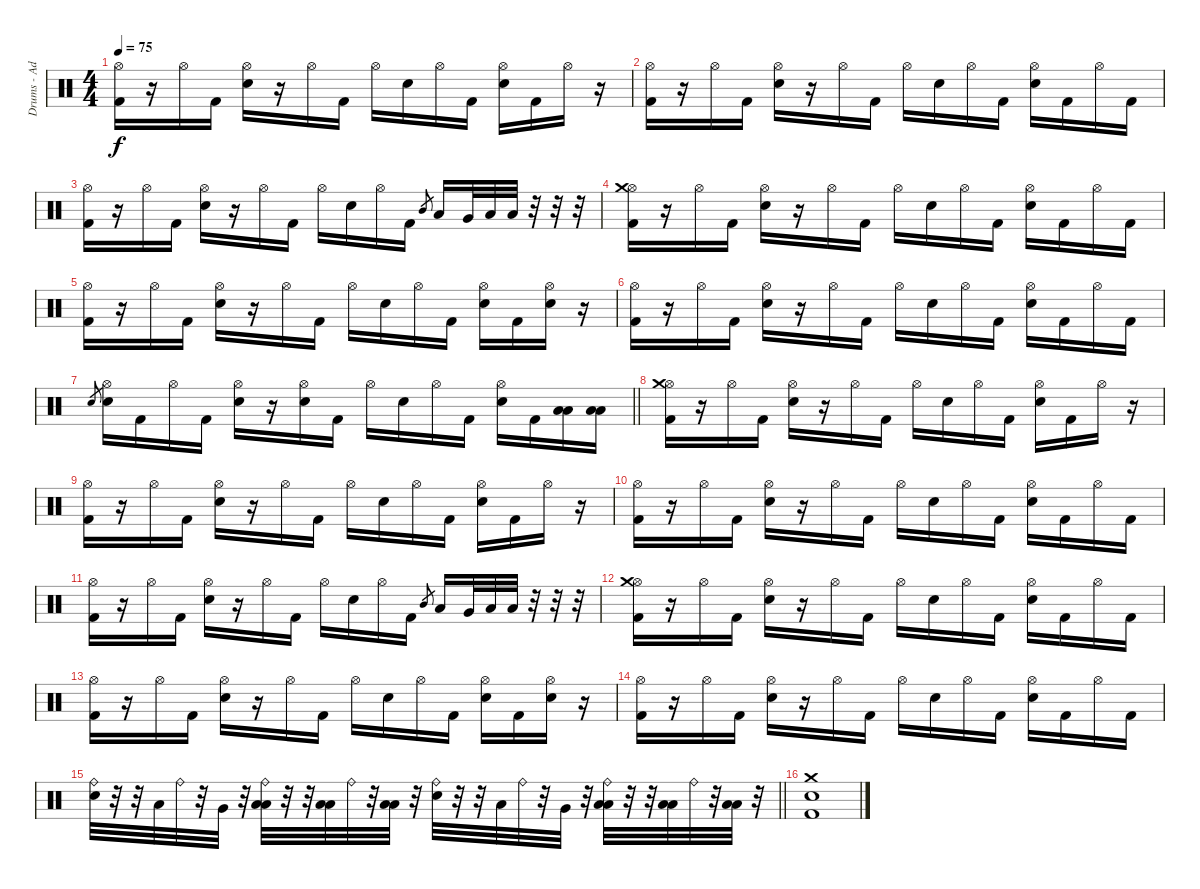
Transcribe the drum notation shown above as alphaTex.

\track ("Drums - Adrian Robinson" "Drums - Ad") {instrument percussion}
\staff {score}
\articulation defaults
\ts (4 4)
\tempo 75
\clef neutral
\ks c
("Hi-Hat (open)" "Kick (hit) 2").16{dy f} r.16 "Hi-Hat (open)".16 "Kick (hit) 2".16 ("Hi-Hat (open)" "Electric Snare (hit)").16 r.16 "Hi-Hat (open)".16 "Kick (hit) 2".16 "Hi-Hat (open)".16 "Electric Snare (hit)".16 "Hi-Hat (open)".16 "Kick (hit) 2".16 ("Hi-Hat (open)" "Electric Snare (hit)").16 "Kick (hit) 2".16 "Hi-Hat (open)".16 r.16 |
("Hi-Hat (open)" "Kick (hit) 2").16 r.16 "Hi-Hat (open)".16 "Kick (hit) 2".16 ("Hi-Hat (open)" "Electric Snare (hit)").16 r.16 "Hi-Hat (open)".16 "Kick (hit) 2".16 "Hi-Hat (open)".16 "Electric Snare (hit)".16 "Hi-Hat (open)".16 "Kick (hit) 2".16 ("Hi-Hat (open)" "Electric Snare (hit)").16 "Kick (hit) 2".16 "Hi-Hat (open)".16 "Kick (hit) 2".16 |
("Hi-Hat (open)" "Kick (hit) 2").16 r.16 "Hi-Hat (open)".16 "Kick (hit) 2".16 ("Hi-Hat (open)" "Electric Snare (hit)").16 r.16 "Hi-Hat (open)".16 "Kick (hit) 2".16 "Hi-Hat (open)".16 "Electric Snare (hit)".16 "Hi-Hat (open)".16 "Kick (hit) 2".16 "Mid Tom (hit)".8{gr} "Low Tom (hit)".16 "Very Low Tom (hit)".32 "Low Floor Tom (hit)".32 "Low Floor Tom (hit)".32 r.32 r.32 r.32 |
("Hi-Hat (open)" "Crash medium (hit)" "Kick (hit) 2").16 r.16 "Hi-Hat (open)".16 "Kick (hit) 2".16 ("Hi-Hat (open)" "Electric Snare (hit)").16 r.16 "Hi-Hat (open)".16 "Kick (hit) 2".16 "Hi-Hat (open)".16 "Electric Snare (hit)".16 "Hi-Hat (open)".16 "Kick (hit) 2".16 ("Hi-Hat (open)" "Electric Snare (hit)").16 "Kick (hit) 2".16 "Hi-Hat (open)".16 "Kick (hit) 2".16 |
("Hi-Hat (open)" "Kick (hit) 2").16 r.16 "Hi-Hat (open)".16 "Kick (hit) 2".16 ("Hi-Hat (open)" "Electric Snare (hit)").16 r.16 "Hi-Hat (open)".16 "Kick (hit) 2".16 "Hi-Hat (open)".16 "Electric Snare (hit)".16 "Hi-Hat (open)".16 "Kick (hit) 2".16 ("Hi-Hat (open)" "Electric Snare (hit)").16 "Kick (hit) 2".16 ("Hi-Hat (open)" "Electric Snare (hit)").16 r.16 |
("Hi-Hat (open)" "Kick (hit) 2").16 r.16 "Hi-Hat (open)".16 "Kick (hit) 2".16 ("Hi-Hat (open)" "Electric Snare (hit)").16 r.16 "Hi-Hat (open)".16 "Kick (hit) 2".16 "Hi-Hat (open)".16 "Electric Snare (hit)".16 "Hi-Hat (open)".16 "Kick (hit) 2".16 ("Hi-Hat (open)" "Electric Snare (hit)").16 "Kick (hit) 2".16 "Hi-Hat (open)".16 "Kick (hit) 2".16 |
\barLineRight lightlight "Electric Snare (hit)".8{gr}
("Hi-Hat (open)" "Electric Snare (hit)").16 "Kick (hit) 2".16 "Hi-Hat (open)".16 "Kick (hit) 2".16 ("Hi-Hat (open)" "Electric Snare (hit)").16 r.16 ("Hi-Hat (open)" "Electric Snare (hit)").16 "Kick (hit) 2".16 "Hi-Hat (open)".16 "Electric Snare (hit)".16 "Hi-Hat (open)".16 "Kick (hit) 2".16 ("Hi-Hat (open)" "Electric Snare (hit)").16 "Kick (hit) 2".16 ("Low Floor Tom (hit)" "Low Floor Tom (hit)").16 ("Low Floor Tom (hit)" "Low Floor Tom (hit)").16 |
("Hi-Hat (open)" "Crash medium (hit)" "Kick (hit) 2").16 r.16 "Hi-Hat (open)".16 "Kick (hit) 2".16 ("Hi-Hat (open)" "Electric Snare (hit)").16 r.16 "Hi-Hat (open)".16 "Kick (hit) 2".16 "Hi-Hat (open)".16 "Electric Snare (hit)".16 "Hi-Hat (open)".16 "Kick (hit) 2".16 ("Hi-Hat (open)" "Electric Snare (hit)").16 "Kick (hit) 2".16 "Hi-Hat (open)".16 r.16 |
("Hi-Hat (open)" "Kick (hit) 2").16 r.16 "Hi-Hat (open)".16 "Kick (hit) 2".16 ("Hi-Hat (open)" "Electric Snare (hit)").16 r.16 "Hi-Hat (open)".16 "Kick (hit) 2".16 "Hi-Hat (open)".16 "Electric Snare (hit)".16 "Hi-Hat (open)".16 "Kick (hit) 2".16 ("Hi-Hat (open)" "Electric Snare (hit)").16 "Kick (hit) 2".16 "Hi-Hat (open)".16 r.16 |
("Hi-Hat (open)" "Kick (hit) 2").16 r.16 "Hi-Hat (open)".16 "Kick (hit) 2".16 ("Hi-Hat (open)" "Electric Snare (hit)").16 r.16 "Hi-Hat (open)".16 "Kick (hit) 2".16 "Hi-Hat (open)".16 "Electric Snare (hit)".16 "Hi-Hat (open)".16 "Kick (hit) 2".16 ("Hi-Hat (open)" "Electric Snare (hit)").16 "Kick (hit) 2".16 "Hi-Hat (open)".16 "Kick (hit) 2".16 |
("Hi-Hat (open)" "Kick (hit) 2").16 r.16 "Hi-Hat (open)".16 "Kick (hit) 2".16 ("Hi-Hat (open)" "Electric Snare (hit)").16 r.16 "Hi-Hat (open)".16 "Kick (hit) 2".16 "Hi-Hat (open)".16 "Electric Snare (hit)".16 "Hi-Hat (open)".16 "Kick (hit) 2".16 "Mid Tom (hit)".8{gr} "Low Tom (hit)".16 "Very Low Tom (hit)".32 "Low Floor Tom (hit)".32 "Low Floor Tom (hit)".32 r.32 r.32 r.32 |
("Hi-Hat (open)" "Crash medium (hit)" "Kick (hit) 2").16 r.16 "Hi-Hat (open)".16 "Kick (hit) 2".16 ("Hi-Hat (open)" "Electric Snare (hit)").16 r.16 "Hi-Hat (open)".16 "Kick (hit) 2".16 "Hi-Hat (open)".16 "Electric Snare (hit)".16 "Hi-Hat (open)".16 "Kick (hit) 2".16 ("Hi-Hat (open)" "Electric Snare (hit)").16 "Kick (hit) 2".16 "Hi-Hat (open)".16 "Kick (hit) 2".16 |
("Hi-Hat (open)" "Kick (hit) 2").16 r.16 "Hi-Hat (open)".16 "Kick (hit) 2".16 ("Hi-Hat (open)" "Electric Snare (hit)").16 r.16 "Hi-Hat (open)".16 "Kick (hit) 2".16 "Hi-Hat (open)".16 "Electric Snare (hit)".16 "Hi-Hat (open)".16 "Kick (hit) 2".16 ("Hi-Hat (open)" "Electric Snare (hit)").16 "Kick (hit) 2".16 ("Hi-Hat (open)" "Electric Snare (hit)").16 r.16 |
("Hi-Hat (open)" "Kick (hit) 2").16 r.16 "Hi-Hat (open)".16 "Kick (hit) 2".16 ("Hi-Hat (open)" "Electric Snare (hit)").16 r.16 "Hi-Hat (open)".16 "Kick (hit) 2".16 "Hi-Hat (open)".16 "Electric Snare (hit)".16 "Hi-Hat (open)".16 "Kick (hit) 2".16 ("Hi-Hat (open)" "Electric Snare (hit)").16 "Kick (hit) 2".16 "Hi-Hat (open)".16 "Kick (hit) 2".16 |
\barLineRight lightlight
("Ride (bell)" "Electric Snare (hit)").32 r.32 r.32 "Low Tom (hit)".32 "Ride (bell)".32 r.32 "Very Low Tom (hit)".32 r.32 ("Ride (bell)" "Low Floor Tom (hit)" "Low Floor Tom (hit)").32 r.32 r.32 ("Low Floor Tom (hit)" "Low Floor Tom (hit)").32 "Ride (bell)".32 r.32 ("Low Floor Tom (hit)" "Low Floor Tom (hit)").32 r.32 ("Ride (bell)" "Electric Snare (hit)").32 r.32 r.32 "Low Tom (hit)".32 "Ride (bell)".32 r.32 "Very Low Tom (hit)".32 r.32 ("Ride (bell)" "Low Floor Tom (hit)" "Low Floor Tom (hit)").32 r.32 r.32 ("Low Floor Tom (hit)" "Low Floor Tom (hit)").32 "Ride (bell)".32 r.32 ("Low Floor Tom (hit)" "Low Floor Tom (hit)").32 r.32 |
("Crash medium (hit)" "Electric Snare (hit)" "Kick (hit) 2").1
